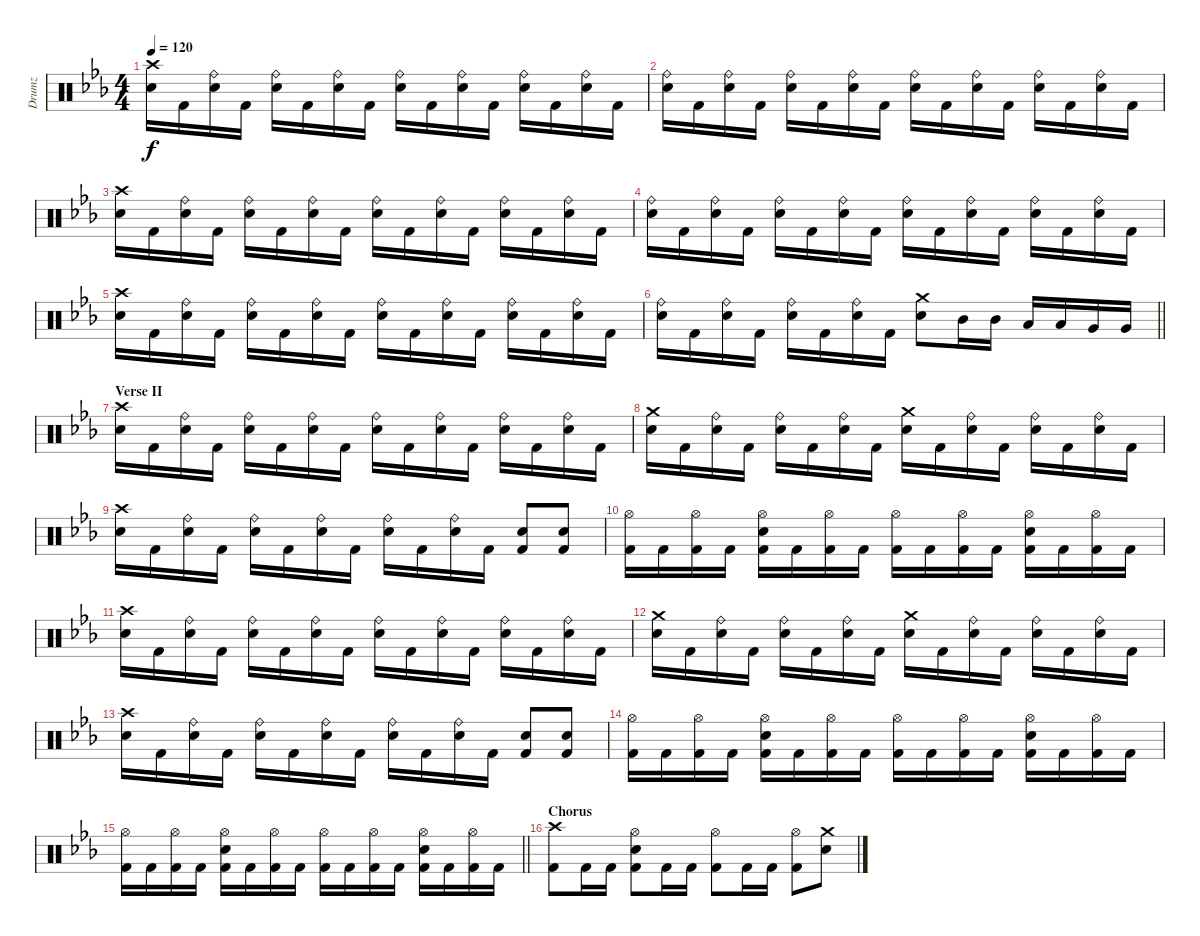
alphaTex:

\track ("Drumz" "Drumz") {instrument percussion}
\staff {score}
\articulation defaults
\ts (4 4)
\tempo 120
\clef neutral
\ks eb
("Crash high (hit)" "Electric Snare (hit)").16{dy f} "Kick (hit) 2".16 ("Ride (bell)" "Electric Snare (hit)").16 "Kick (hit) 2".16 ("Ride (bell)" "Electric Snare (hit)").16 "Kick (hit) 2".16 ("Ride (bell)" "Electric Snare (hit)").16 "Kick (hit) 2".16 ("Ride (bell)" "Electric Snare (hit)").16 "Kick (hit) 2".16 ("Ride (bell)" "Electric Snare (hit)").16 "Kick (hit) 2".16 ("Ride (bell)" "Electric Snare (hit)").16 "Kick (hit) 2".16 ("Ride (bell)" "Electric Snare (hit)").16 "Kick (hit) 2".16 |
("Ride (bell)" "Electric Snare (hit)").16 "Kick (hit) 2".16 ("Ride (bell)" "Electric Snare (hit)").16 "Kick (hit) 2".16 ("Ride (bell)" "Electric Snare (hit)").16 "Kick (hit) 2".16 ("Ride (bell)" "Electric Snare (hit)").16 "Kick (hit) 2".16 ("Ride (bell)" "Electric Snare (hit)").16 "Kick (hit) 2".16 ("Ride (bell)" "Electric Snare (hit)").16 "Kick (hit) 2".16 ("Ride (bell)" "Electric Snare (hit)").16 "Kick (hit) 2".16 ("Ride (bell)" "Electric Snare (hit)").16 "Kick (hit) 2".16 |
("Crash high (hit)" "Electric Snare (hit)").16 "Kick (hit) 2".16 ("Ride (bell)" "Electric Snare (hit)").16 "Kick (hit) 2".16 ("Ride (bell)" "Electric Snare (hit)").16 "Kick (hit) 2".16 ("Ride (bell)" "Electric Snare (hit)").16 "Kick (hit) 2".16 ("Ride (bell)" "Electric Snare (hit)").16 "Kick (hit) 2".16 ("Ride (bell)" "Electric Snare (hit)").16 "Kick (hit) 2".16 ("Ride (bell)" "Electric Snare (hit)").16 "Kick (hit) 2".16 ("Ride (bell)" "Electric Snare (hit)").16 "Kick (hit) 2".16 |
("Ride (bell)" "Electric Snare (hit)").16 "Kick (hit) 2".16 ("Ride (bell)" "Electric Snare (hit)").16 "Kick (hit) 2".16 ("Ride (bell)" "Electric Snare (hit)").16 "Kick (hit) 2".16 ("Ride (bell)" "Electric Snare (hit)").16 "Kick (hit) 2".16 ("Ride (bell)" "Electric Snare (hit)").16 "Kick (hit) 2".16 ("Ride (bell)" "Electric Snare (hit)").16 "Kick (hit) 2".16 ("Ride (bell)" "Electric Snare (hit)").16 "Kick (hit) 2".16 ("Ride (bell)" "Electric Snare (hit)").16 "Kick (hit) 2".16 |
("Crash high (hit)" "Electric Snare (hit)").16 "Kick (hit) 2".16 ("Ride (bell)" "Electric Snare (hit)").16 "Kick (hit) 2".16 ("Ride (bell)" "Electric Snare (hit)").16 "Kick (hit) 2".16 ("Ride (bell)" "Electric Snare (hit)").16 "Kick (hit) 2".16 ("Ride (bell)" "Electric Snare (hit)").16 "Kick (hit) 2".16 ("Ride (bell)" "Electric Snare (hit)").16 "Kick (hit) 2".16 ("Ride (bell)" "Electric Snare (hit)").16 "Kick (hit) 2".16 ("Ride (bell)" "Electric Snare (hit)").16 "Kick (hit) 2".16 |
\barLineRight lightlight
("Ride (bell)" "Electric Snare (hit)").16 "Kick (hit) 2".16 ("Ride (bell)" "Electric Snare (hit)").16 "Kick (hit) 2".16 ("Ride (bell)" "Electric Snare (hit)").16 "Kick (hit) 2".16 ("Ride (bell)" "Electric Snare (hit)").16 "Kick (hit) 2".16 ("Crash medium (hit)" "Electric Snare (hit)").8 "Mid Tom (hit)".16 "Mid Tom (hit)".16 "Low Tom (hit)".16 "Low Tom (hit)".16 "Very Low Tom (hit)".16 "Very Low Tom (hit)".16 |
\section ("" "Verse II")
("Crash high (hit)" "Electric Snare (hit)").16 "Kick (hit) 2".16 ("Ride (bell)" "Electric Snare (hit)").16 "Kick (hit) 2".16 ("Ride (bell)" "Electric Snare (hit)").16 "Kick (hit) 2".16 ("Ride (bell)" "Electric Snare (hit)").16 "Kick (hit) 2".16 ("Ride (bell)" "Electric Snare (hit)").16 "Kick (hit) 2".16 ("Ride (bell)" "Electric Snare (hit)").16 "Kick (hit) 2".16 ("Ride (bell)" "Electric Snare (hit)").16 "Kick (hit) 2".16 ("Ride (bell)" "Electric Snare (hit)").16 "Kick (hit) 2".16 |
("Crash medium (hit)" "Electric Snare (hit)").16 "Kick (hit) 2".16 ("Ride (bell)" "Electric Snare (hit)").16 "Kick (hit) 2".16 ("Ride (bell)" "Electric Snare (hit)").16 "Kick (hit) 2".16 ("Ride (bell)" "Electric Snare (hit)").16 "Kick (hit) 2".16 ("Crash medium (hit)" "Electric Snare (hit)").16 "Kick (hit) 2".16 ("Ride (bell)" "Electric Snare (hit)").16 "Kick (hit) 2".16 ("Ride (bell)" "Electric Snare (hit)").16 "Kick (hit) 2".16 ("Ride (bell)" "Electric Snare (hit)").16 "Kick (hit) 2".16 |
("Crash high (hit)" "Electric Snare (hit)").16 "Kick (hit) 2".16 ("Ride (bell)" "Electric Snare (hit)").16 "Kick (hit) 2".16 ("Ride (bell)" "Electric Snare (hit)").16 "Kick (hit) 2".16 ("Ride (bell)" "Electric Snare (hit)").16 "Kick (hit) 2".16 ("Ride (bell)" "Electric Snare (hit)").16 "Kick (hit) 2".16 ("Ride (bell)" "Electric Snare (hit)").16 "Kick (hit) 2".16 ("Electric Snare (hit)" "Kick (hit) 2").8 ("Electric Snare (hit)" "Kick (hit) 2").8 |
("Hi-Hat (open)" "Kick (hit) 2").16 "Kick (hit) 2".16 ("Hi-Hat (open)" "Kick (hit) 2").16 "Kick (hit) 2".16 ("Hi-Hat (open)" "Electric Snare (hit)" "Kick (hit) 2").16 "Kick (hit) 2".16 ("Hi-Hat (open)" "Kick (hit) 2").16 "Kick (hit) 2".16 ("Hi-Hat (open)" "Kick (hit) 2").16 "Kick (hit) 2".16 ("Hi-Hat (open)" "Kick (hit) 2").16 "Kick (hit) 2".16 ("Hi-Hat (open)" "Electric Snare (hit)" "Kick (hit) 2").16 "Kick (hit) 2".16 ("Hi-Hat (open)" "Kick (hit) 2").16 "Kick (hit) 2".16 |
("Crash high (hit)" "Electric Snare (hit)").16 "Kick (hit) 2".16 ("Ride (bell)" "Electric Snare (hit)").16 "Kick (hit) 2".16 ("Ride (bell)" "Electric Snare (hit)").16 "Kick (hit) 2".16 ("Ride (bell)" "Electric Snare (hit)").16 "Kick (hit) 2".16 ("Ride (bell)" "Electric Snare (hit)").16 "Kick (hit) 2".16 ("Ride (bell)" "Electric Snare (hit)").16 "Kick (hit) 2".16 ("Ride (bell)" "Electric Snare (hit)").16 "Kick (hit) 2".16 ("Ride (bell)" "Electric Snare (hit)").16 "Kick (hit) 2".16 |
("Crash medium (hit)" "Electric Snare (hit)").16 "Kick (hit) 2".16 ("Ride (bell)" "Electric Snare (hit)").16 "Kick (hit) 2".16 ("Ride (bell)" "Electric Snare (hit)").16 "Kick (hit) 2".16 ("Ride (bell)" "Electric Snare (hit)").16 "Kick (hit) 2".16 ("Crash medium (hit)" "Electric Snare (hit)").16 "Kick (hit) 2".16 ("Ride (bell)" "Electric Snare (hit)").16 "Kick (hit) 2".16 ("Ride (bell)" "Electric Snare (hit)").16 "Kick (hit) 2".16 ("Ride (bell)" "Electric Snare (hit)").16 "Kick (hit) 2".16 |
("Crash high (hit)" "Electric Snare (hit)").16 "Kick (hit) 2".16 ("Ride (bell)" "Electric Snare (hit)").16 "Kick (hit) 2".16 ("Ride (bell)" "Electric Snare (hit)").16 "Kick (hit) 2".16 ("Ride (bell)" "Electric Snare (hit)").16 "Kick (hit) 2".16 ("Ride (bell)" "Electric Snare (hit)").16 "Kick (hit) 2".16 ("Ride (bell)" "Electric Snare (hit)").16 "Kick (hit) 2".16 ("Electric Snare (hit)" "Kick (hit) 2").8 ("Electric Snare (hit)" "Kick (hit) 2").8 |
("Hi-Hat (open)" "Kick (hit) 2").16 "Kick (hit) 2".16 ("Hi-Hat (open)" "Kick (hit) 2").16 "Kick (hit) 2".16 ("Hi-Hat (open)" "Electric Snare (hit)" "Kick (hit) 2").16 "Kick (hit) 2".16 ("Hi-Hat (open)" "Kick (hit) 2").16 "Kick (hit) 2".16 ("Hi-Hat (open)" "Kick (hit) 2").16 "Kick (hit) 2".16 ("Hi-Hat (open)" "Kick (hit) 2").16 "Kick (hit) 2".16 ("Hi-Hat (open)" "Electric Snare (hit)" "Kick (hit) 2").16 "Kick (hit) 2".16 ("Hi-Hat (open)" "Kick (hit) 2").16 "Kick (hit) 2".16 |
\barLineRight lightlight
("Hi-Hat (open)" "Kick (hit) 2").16 "Kick (hit) 2".16 ("Hi-Hat (open)" "Kick (hit) 2").16 "Kick (hit) 2".16 ("Hi-Hat (open)" "Electric Snare (hit)" "Kick (hit) 2").16 "Kick (hit) 2".16 ("Hi-Hat (open)" "Kick (hit) 2").16 "Kick (hit) 2".16 ("Hi-Hat (open)" "Kick (hit) 2").16 "Kick (hit) 2".16 ("Hi-Hat (open)" "Kick (hit) 2").16 "Kick (hit) 2".16 ("Hi-Hat (open)" "Electric Snare (hit)" "Kick (hit) 2").16 "Kick (hit) 2".16 ("Hi-Hat (open)" "Kick (hit) 2").16 "Kick (hit) 2".16 |
\section ("" "Chorus")
("Crash high (hit)" "Kick (hit) 2").8 "Kick (hit) 2".16 "Kick (hit) 2".16 ("Hi-Hat (open)" "Electric Snare (hit)" "Kick (hit) 2").8 "Kick (hit) 2".16 "Kick (hit) 2".16 ("Hi-Hat (open)" "Kick (hit) 2").8 "Kick (hit) 2".16 "Kick (hit) 2".16 ("Hi-Hat (open)" "Kick (hit) 2").8 ("Crash medium (hit)" "Electric Snare (hit)").8
